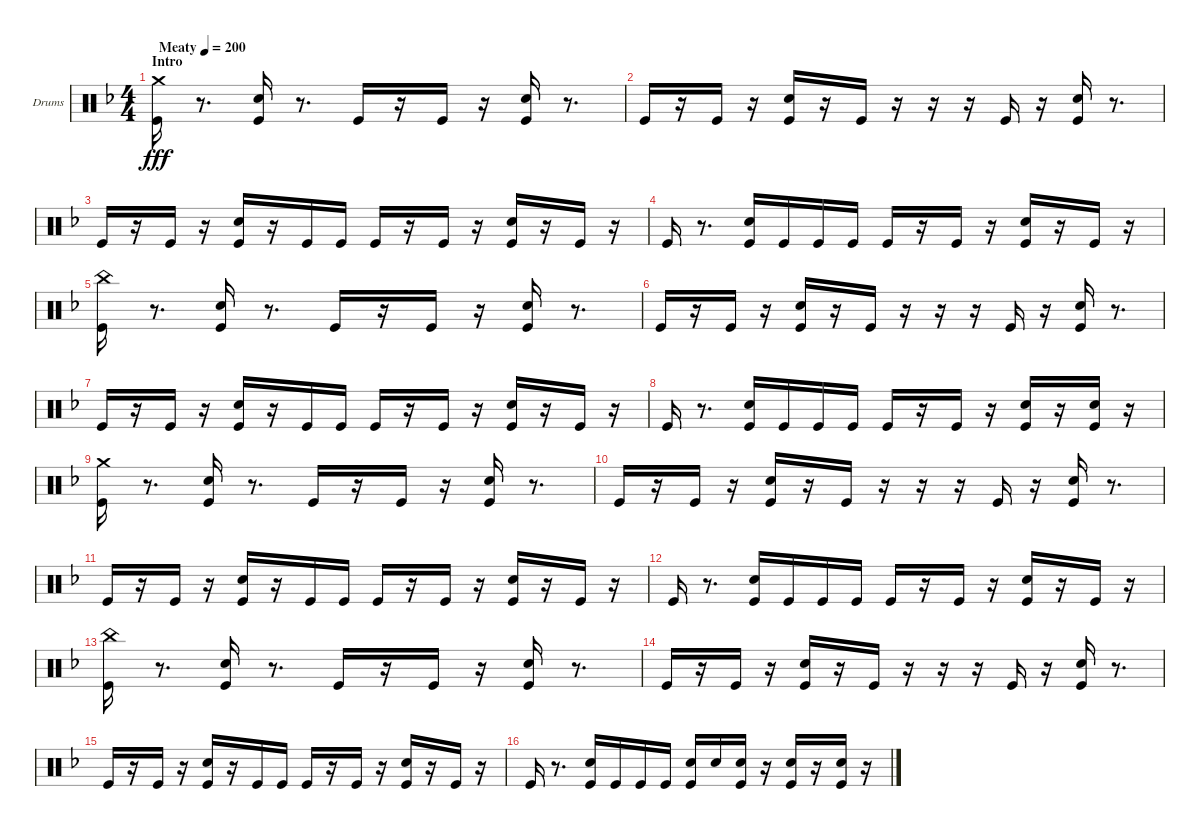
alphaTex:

\bracketExtendMode groupsimilarinstruments
\firstSystemTrackNameOrientation horizontal
\otherSystemsTrackNameOrientation horizontal
\track ("Drumkit" "Drums") {instrument percussion}
\staff {score}
\articulation defaults
\ts (4 4)
\section ("" "Intro")
\tempo (200 "Meaty")
\clef neutral
\scale
0.5
\ks dminor
("Crash medium (hit)" "Kick (hit)").16{dy fff} r.8{d} ("Snare (hit) 2" "Kick (hit)").16 r.8{d} "Kick (hit)".16 r.16 "Kick (hit)".16 r.16 ("Snare (hit) 2" "Kick (hit)").16 r.8{d} |
\scale
0.25 "Kick (hit)".16 r.16 "Kick (hit)".16 r.16 ("Snare (hit) 2" "Kick (hit)").16 r.16 "Kick (hit)".16 r.16 r.16 r.16 "Kick (hit)".16 r.16 ("Snare (hit) 2" "Kick (hit)").16 r.8{d} |
\scale
0.25 "Kick (hit)".16 r.16 "Kick (hit)".16 r.16 ("Snare (hit) 2" "Kick (hit)").16 r.16 "Kick (hit)".16 "Kick (hit)".16 "Kick (hit)".16 r.16 "Kick (hit)".16 r.16 ("Snare (hit) 2" "Kick (hit)").16 r.16 "Kick (hit)".16 r.16 |
\scale
0.333333 "Kick (hit)".16 r.8{d} ("Snare (hit) 2" "Kick (hit)").16 "Kick (hit)".16 "Kick (hit)".16 "Kick (hit)".16 "Kick (hit)".16 r.16 "Kick (hit)".16 r.16 ("Snare (hit) 2" "Kick (hit)").16 r.16 "Kick (hit)".16 r.16 |
\scale
0.333333 ("China (hit)" "Kick (hit)").16 r.8{d} ("Kick (hit)" "Snare (hit) 2").16 r.8{d} "Kick (hit)".16 r.16 "Kick (hit)".16 r.16 ("Kick (hit)" "Snare (hit) 2").16 r.8{d} |
\scale
0.333333 "Kick (hit)".16 r.16 "Kick (hit)".16 r.16 ("Kick (hit)" "Snare (hit) 2").16 r.16 "Kick (hit)".16 r.16 r.16 r.16 "Kick (hit)".16 r.16 ("Kick (hit)" "Snare (hit) 2").16 r.8{d} |
\scale
0.333333 "Kick (hit)".16 r.16 "Kick (hit)".16 r.16 ("Kick (hit)" "Snare (hit) 2").16 r.16 "Kick (hit)".16 "Kick (hit)".16 "Kick (hit)".16 r.16 "Kick (hit)".16 r.16 ("Kick (hit)" "Snare (hit) 2").16 r.16 "Kick (hit)".16 r.16 |
\scale
0.333333 "Kick (hit)".16 r.8{d} ("Kick (hit)" "Snare (hit) 2").16 "Kick (hit)".16 "Kick (hit)".16 "Kick (hit)".16 "Kick (hit)".16 r.16 "Kick (hit)".16 r.16 ("Kick (hit)" "Snare (hit) 2").16 r.16 ("Snare (hit) 2" "Kick (hit)").16 r.16 |
\scale
0.333333 ("Crash medium (hit)" "Kick (hit)").16 r.8{d} ("Kick (hit)" "Snare (hit) 2").16 r.8{d} "Kick (hit)".16 r.16 "Kick (hit)".16 r.16 ("Kick (hit)" "Snare (hit) 2").16 r.8{d} |
\scale
0.333333 "Kick (hit)".16 r.16 "Kick (hit)".16 r.16 ("Kick (hit)" "Snare (hit) 2").16 r.16 "Kick (hit)".16 r.16 r.16 r.16 "Kick (hit)".16 r.16 ("Kick (hit)" "Snare (hit) 2").16 r.8{d} |
\scale
0.333333 "Kick (hit)".16 r.16 "Kick (hit)".16 r.16 ("Kick (hit)" "Snare (hit) 2").16 r.16 "Kick (hit)".16 "Kick (hit)".16 "Kick (hit)".16 r.16 "Kick (hit)".16 r.16 ("Kick (hit)" "Snare (hit) 2").16 r.16 "Kick (hit)".16 r.16 |
\scale
0.333333 "Kick (hit)".16 r.8{d} ("Kick (hit)" "Snare (hit) 2").16 "Kick (hit)".16 "Kick (hit)".16 "Kick (hit)".16 "Kick (hit)".16 r.16 "Kick (hit)".16 r.16 ("Kick (hit)" "Snare (hit) 2").16 r.16 "Kick (hit)".16 r.16 |
\scale
0.333333 ("China (hit)" "Kick (hit)").16 r.8{d} ("Kick (hit)" "Snare (hit) 2").16 r.8{d} "Kick (hit)".16 r.16 "Kick (hit)".16 r.16 ("Kick (hit)" "Snare (hit) 2").16 r.8{d} |
\scale
0.333333 "Kick (hit)".16 r.16 "Kick (hit)".16 r.16 ("Kick (hit)" "Snare (hit) 2").16 r.16 "Kick (hit)".16 r.16 r.16 r.16 "Kick (hit)".16 r.16 ("Kick (hit)" "Snare (hit) 2").16 r.8{d} |
\scale
0.333333 "Kick (hit)".16 r.16 "Kick (hit)".16 r.16 ("Kick (hit)" "Snare (hit) 2").16 r.16 "Kick (hit)".16 "Kick (hit)".16 "Kick (hit)".16 r.16 "Kick (hit)".16 r.16 ("Kick (hit)" "Snare (hit) 2").16 r.16 "Kick (hit)".16 r.16 |
\scale
0.333333 "Kick (hit)".16 r.8{d} ("Kick (hit)" "Snare (hit) 2").16 "Kick (hit)".16 "Kick (hit)".16 "Kick (hit)".16 ("Snare (hit) 2" "Kick (hit)").16 "Snare (hit) 2".16 ("Snare (hit) 2" "Kick (hit)").16 r.16 ("Kick (hit)" "Snare (hit) 2").16 r.16 ("Snare (hit) 2" "Kick (hit)").16 r.16
